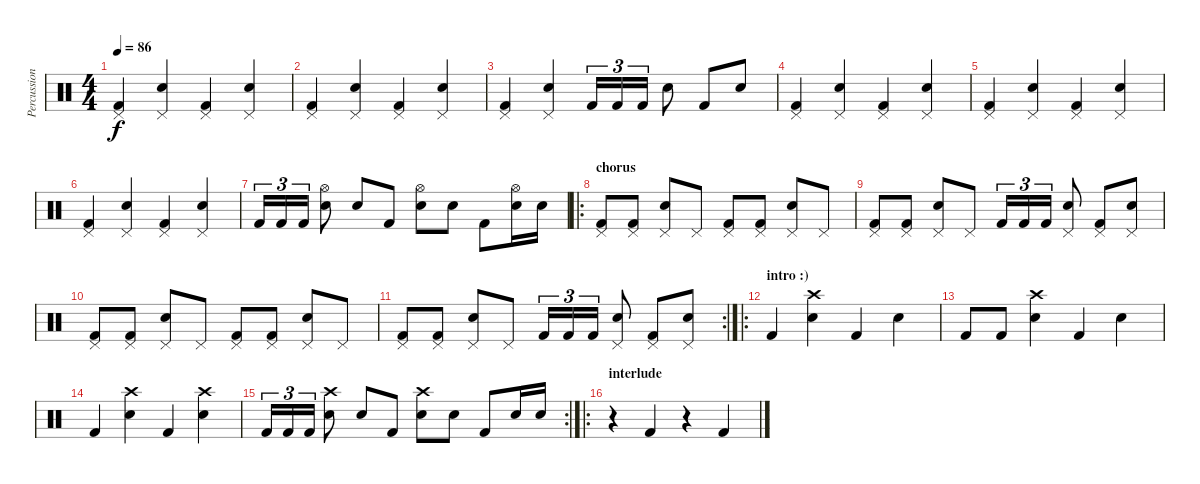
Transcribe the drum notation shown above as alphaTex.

\track ("Percussion" "Percussion") {instrument percussion}
\staff {score}
\articulation defaults
\ts (4 4)
\tempo 86
\clef neutral
\ks c
("Pedal Hi-Hat (hit)" "Kick (hit) 2").4{dy f} ("Pedal Hi-Hat (hit)" "Electric Snare (hit)").4 ("Pedal Hi-Hat (hit)" "Kick (hit) 2").4 ("Pedal Hi-Hat (hit)" "Electric Snare (hit)").4 |
("Pedal Hi-Hat (hit)" "Kick (hit) 2").4 ("Pedal Hi-Hat (hit)" "Electric Snare (hit)").4 ("Pedal Hi-Hat (hit)" "Kick (hit) 2").4 ("Pedal Hi-Hat (hit)" "Electric Snare (hit)").4 |
("Pedal Hi-Hat (hit)" "Kick (hit) 2").4 ("Pedal Hi-Hat (hit)" "Electric Snare (hit)").4 "Kick (hit) 2".16{tu (3 2)} "Kick (hit) 2".16{tu (3 2)} "Kick (hit) 2".16{tu (3 2)} "Electric Snare (hit)".8 "Kick (hit) 2".8 "Electric Snare (hit)".8 |
("Pedal Hi-Hat (hit)" "Kick (hit) 2").4 ("Pedal Hi-Hat (hit)" "Electric Snare (hit)").4 ("Pedal Hi-Hat (hit)" "Kick (hit) 2").4 ("Pedal Hi-Hat (hit)" "Electric Snare (hit)").4 |
("Pedal Hi-Hat (hit)" "Kick (hit) 2").4 ("Pedal Hi-Hat (hit)" "Electric Snare (hit)").4 ("Pedal Hi-Hat (hit)" "Kick (hit) 2").4 ("Pedal Hi-Hat (hit)" "Electric Snare (hit)").4 |
("Pedal Hi-Hat (hit)" "Kick (hit) 2").4 ("Pedal Hi-Hat (hit)" "Electric Snare (hit)").4 ("Pedal Hi-Hat (hit)" "Kick (hit) 2").4 ("Pedal Hi-Hat (hit)" "Electric Snare (hit)").4 |
"Kick (hit) 2".16{tu (3 2)} "Kick (hit) 2".16{tu (3 2)} "Kick (hit) 2".16{tu (3 2)} ("Hi-Hat (open)" "Electric Snare (hit)").8 "Electric Snare (hit)".8 "Kick (hit) 2".8 ("Hi-Hat (open)" "Electric Snare (hit)").8 "Electric Snare (hit)".8 "Kick (hit) 2".8 ("Hi-Hat (open)" "Electric Snare (hit)").16 "Electric Snare (hit)".16 |
\ro
\section ("" "chorus")
("Pedal Hi-Hat (hit)" "Kick (hit) 2").8 ("Pedal Hi-Hat (hit)" "Kick (hit) 2").8 ("Pedal Hi-Hat (hit)" "Electric Snare (hit)").8 "Pedal Hi-Hat (hit)".8 ("Pedal Hi-Hat (hit)" "Kick (hit) 2").8 ("Pedal Hi-Hat (hit)" "Kick (hit) 2").8 ("Pedal Hi-Hat (hit)" "Electric Snare (hit)").8 "Pedal Hi-Hat (hit)".8 |
("Pedal Hi-Hat (hit)" "Kick (hit) 2").8 ("Pedal Hi-Hat (hit)" "Kick (hit) 2").8 ("Pedal Hi-Hat (hit)" "Electric Snare (hit)").8 "Pedal Hi-Hat (hit)".8 "Kick (hit) 2".16{tu (3 2)} "Kick (hit) 2".16{tu (3 2)} "Kick (hit) 2".16{tu (3 2)} ("Pedal Hi-Hat (hit)" "Electric Snare (hit)").8 ("Pedal Hi-Hat (hit)" "Kick (hit) 2").8 ("Pedal Hi-Hat (hit)" "Electric Snare (hit)").8 |
("Pedal Hi-Hat (hit)" "Kick (hit) 2").8 ("Pedal Hi-Hat (hit)" "Kick (hit) 2").8 ("Pedal Hi-Hat (hit)" "Electric Snare (hit)").8 "Pedal Hi-Hat (hit)".8 ("Pedal Hi-Hat (hit)" "Kick (hit) 2").8 ("Pedal Hi-Hat (hit)" "Kick (hit) 2").8 ("Pedal Hi-Hat (hit)" "Electric Snare (hit)").8 "Pedal Hi-Hat (hit)".8 |
\rc 2
("Pedal Hi-Hat (hit)" "Kick (hit) 2").8 ("Pedal Hi-Hat (hit)" "Kick (hit) 2").8 ("Pedal Hi-Hat (hit)" "Electric Snare (hit)").8 "Pedal Hi-Hat (hit)".8 "Kick (hit) 2".16{tu (3 2)} "Kick (hit) 2".16{tu (3 2)} "Kick (hit) 2".16{tu (3 2)} ("Pedal Hi-Hat (hit)" "Electric Snare (hit)").8 ("Pedal Hi-Hat (hit)" "Kick (hit) 2").8 ("Pedal Hi-Hat (hit)" "Electric Snare (hit)").8 |
\ro
\section ("" "intro :)")
"Kick (hit) 2".4 ("Crash high (hit)" "Electric Snare (hit)").4 "Kick (hit) 2".4 "Electric Snare (hit)".4 |
"Kick (hit) 2".8 "Kick (hit) 2".8 ("Crash high (hit)" "Electric Snare (hit)").4 "Kick (hit) 2".4 "Electric Snare (hit)".4 |
"Kick (hit) 2".4 ("Crash high (hit)" "Electric Snare (hit)").4 "Kick (hit) 2".4 ("Crash high (hit)" "Electric Snare (hit)").4 |
\rc 2 "Kick (hit) 2".16{tu (3 2)} "Kick (hit) 2".16{tu (3 2)} "Kick (hit) 2".16{tu (3 2)}
("Crash high (hit)" "Electric Snare (hit)").8 "Electric Snare (hit)".8 "Kick (hit) 2".8 ("Crash high (hit)" "Electric Snare (hit)").8 "Electric Snare (hit)".8 "Kick (hit) 2".8 "Electric Snare (hit)".16 "Electric Snare (hit)".16 |
\ro
\section ("" "interlude")
r.4 "Kick (hit) 2".4 r.4 "Kick (hit) 2".4
